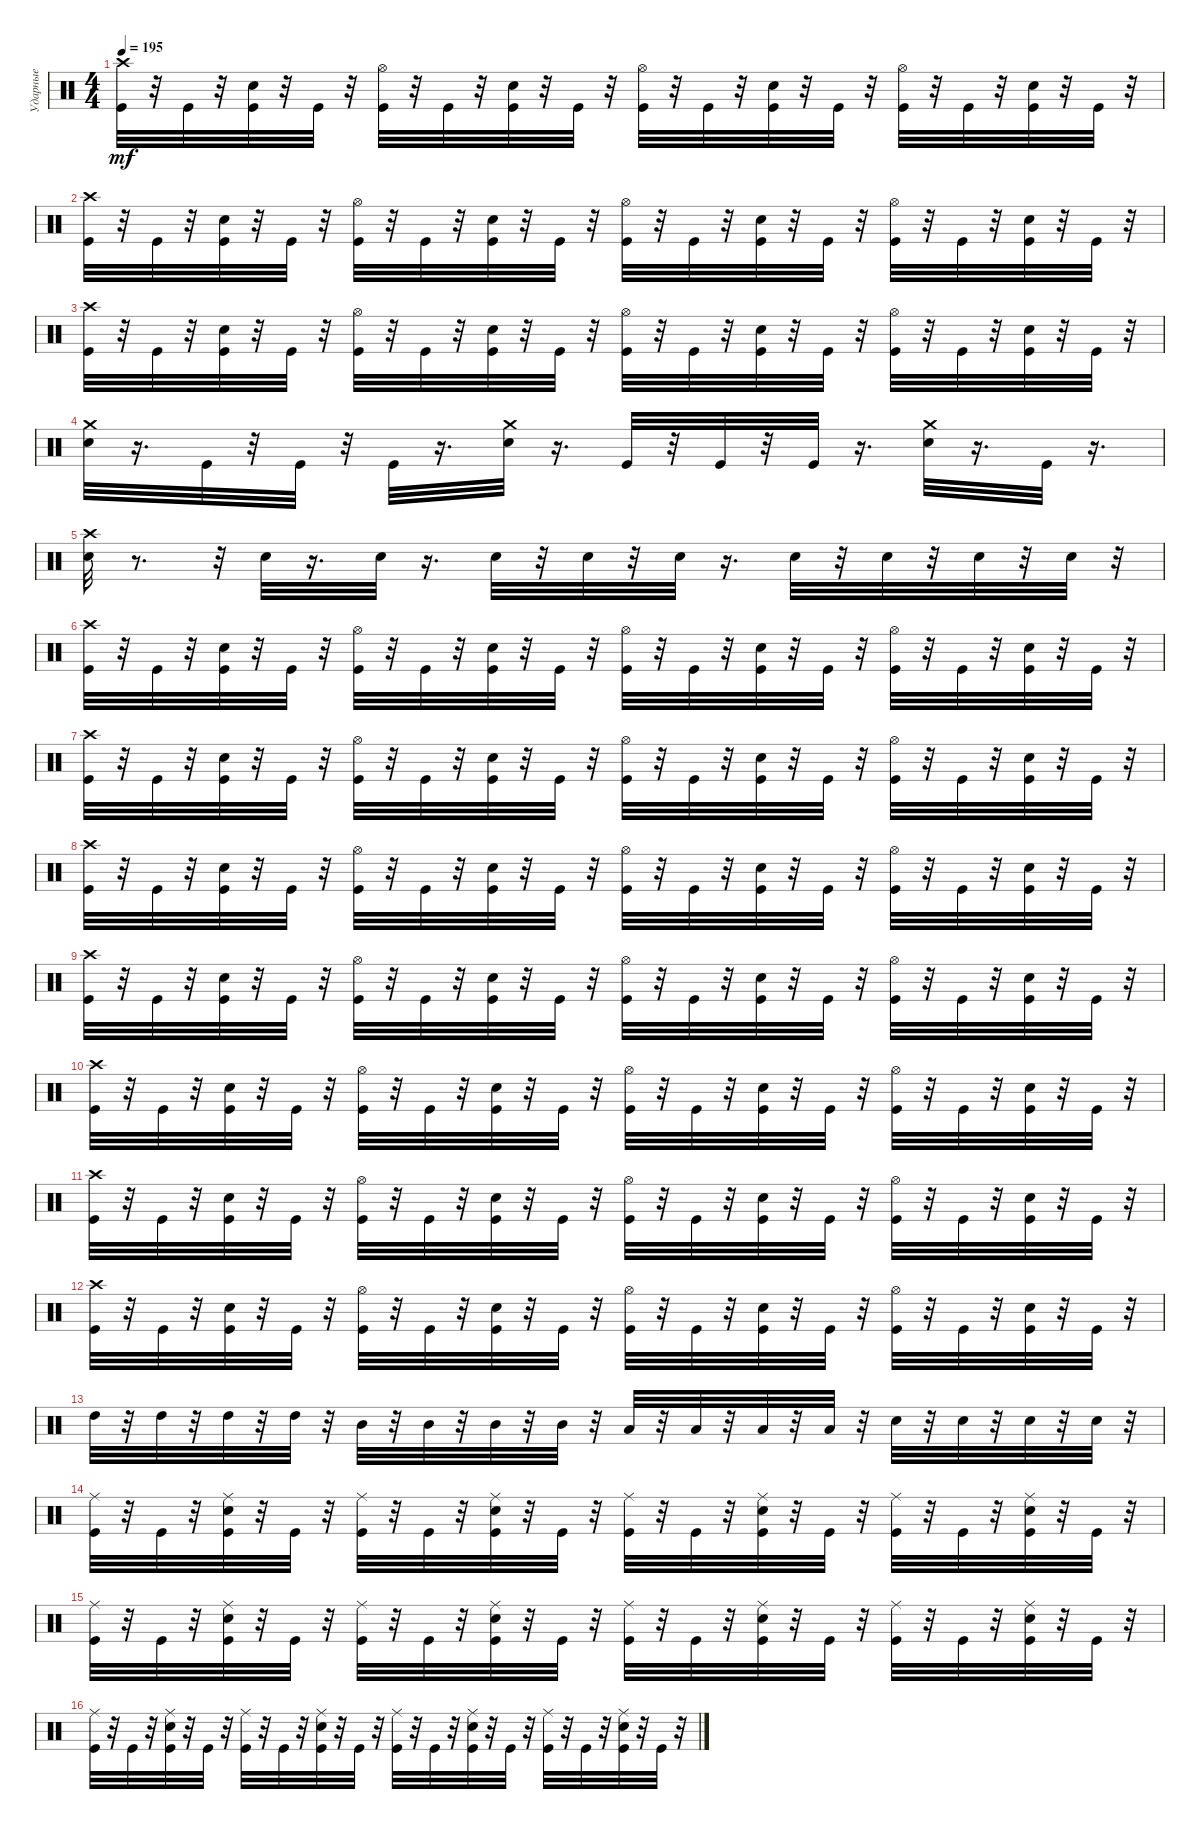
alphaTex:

\track ("Ударные" "Ударные") {instrument percussion}
\staff {score}
\articulation defaults
\ts (4 4)
\tempo 195
\clef neutral
\ks c
("Crash high (hit)" "Kick (hit)").32{dy mf} r.32 "Kick (hit)".32 r.32 ("Electric Snare (hit)" "Kick (hit)").32 r.32 "Kick (hit)".32 r.32 ("Hi-Hat (open)" "Kick (hit)").32 r.32 "Kick (hit)".32 r.32 ("Electric Snare (hit)" "Kick (hit)").32 r.32 "Kick (hit)".32 r.32 ("Hi-Hat (open)" "Kick (hit)").32 r.32 "Kick (hit)".32 r.32 ("Electric Snare (hit)" "Kick (hit)").32 r.32 "Kick (hit)".32 r.32 ("Hi-Hat (open)" "Kick (hit)").32 r.32 "Kick (hit)".32 r.32 ("Electric Snare (hit)" "Kick (hit)").32 r.32 "Kick (hit)".32 r.32 |
("Crash high (hit)" "Kick (hit)").32 r.32 "Kick (hit)".32 r.32 ("Electric Snare (hit)" "Kick (hit)").32 r.32 "Kick (hit)".32 r.32 ("Hi-Hat (open)" "Kick (hit)").32 r.32 "Kick (hit)".32 r.32 ("Electric Snare (hit)" "Kick (hit)").32 r.32 "Kick (hit)".32 r.32 ("Hi-Hat (open)" "Kick (hit)").32 r.32 "Kick (hit)".32 r.32 ("Electric Snare (hit)" "Kick (hit)").32 r.32 "Kick (hit)".32 r.32 ("Hi-Hat (open)" "Kick (hit)").32 r.32 "Kick (hit)".32 r.32 ("Electric Snare (hit)" "Kick (hit)").32 r.32 "Kick (hit)".32 r.32 |
("Crash high (hit)" "Kick (hit)").32 r.32 "Kick (hit)".32 r.32 ("Electric Snare (hit)" "Kick (hit)").32 r.32 "Kick (hit)".32 r.32 ("Hi-Hat (open)" "Kick (hit)").32 r.32 "Kick (hit)".32 r.32 ("Electric Snare (hit)" "Kick (hit)").32 r.32 "Kick (hit)".32 r.32 ("Hi-Hat (open)" "Kick (hit)").32 r.32 "Kick (hit)".32 r.32 ("Electric Snare (hit)" "Kick (hit)").32 r.32 "Kick (hit)".32 r.32 ("Hi-Hat (open)" "Kick (hit)").32 r.32 "Kick (hit)".32 r.32 ("Electric Snare (hit)" "Kick (hit)").32 r.32 "Kick (hit)".32 r.32 |
("Crash medium (hit)" "Electric Snare (hit)").32 r.16{d} "Kick (hit)".32 r.32 "Kick (hit)".32 r.32 "Kick (hit)".32 r.16{d} ("Crash medium (hit)" "Electric Snare (hit)").32 r.16{d} "Kick (hit)".32 r.32 "Kick (hit)".32 r.32 "Kick (hit)".32 r.16{d} ("Electric Snare (hit)" "Crash medium (hit)").32 r.16{d} "Kick (hit)".32 r.16{d} |
("Crash high (hit)" "Electric Snare (hit)").32 r.8{d} r.32 "Electric Snare (hit)".32 r.16{d} "Electric Snare (hit)".32 r.16{d} "Electric Snare (hit)".32 r.32 "Electric Snare (hit)".32 r.32 "Electric Snare (hit)".32 r.16{d} "Electric Snare (hit)".32 r.32 "Electric Snare (hit)".32 r.32 "Electric Snare (hit)".32 r.32 "Electric Snare (hit)".32 r.32 |
("Crash high (hit)" "Kick (hit)").32 r.32 "Kick (hit)".32 r.32 ("Electric Snare (hit)" "Kick (hit)").32 r.32 "Kick (hit)".32 r.32 ("Hi-Hat (open)" "Kick (hit)").32 r.32 "Kick (hit)".32 r.32 ("Electric Snare (hit)" "Kick (hit)").32 r.32 "Kick (hit)".32 r.32 ("Hi-Hat (open)" "Kick (hit)").32 r.32 "Kick (hit)".32 r.32 ("Electric Snare (hit)" "Kick (hit)").32 r.32 "Kick (hit)".32 r.32 ("Hi-Hat (open)" "Kick (hit)").32 r.32 "Kick (hit)".32 r.32 ("Electric Snare (hit)" "Kick (hit)").32 r.32 "Kick (hit)".32 r.32 |
("Crash high (hit)" "Kick (hit)").32 r.32 "Kick (hit)".32 r.32 ("Electric Snare (hit)" "Kick (hit)").32 r.32 "Kick (hit)".32 r.32 ("Hi-Hat (open)" "Kick (hit)").32 r.32 "Kick (hit)".32 r.32 ("Electric Snare (hit)" "Kick (hit)").32 r.32 "Kick (hit)".32 r.32 ("Hi-Hat (open)" "Kick (hit)").32 r.32 "Kick (hit)".32 r.32 ("Electric Snare (hit)" "Kick (hit)").32 r.32 "Kick (hit)".32 r.32 ("Hi-Hat (open)" "Kick (hit)").32 r.32 "Kick (hit)".32 r.32 ("Electric Snare (hit)" "Kick (hit)").32 r.32 "Kick (hit)".32 r.32 |
("Crash high (hit)" "Kick (hit)").32 r.32 "Kick (hit)".32 r.32 ("Electric Snare (hit)" "Kick (hit)").32 r.32 "Kick (hit)".32 r.32 ("Hi-Hat (open)" "Kick (hit)").32 r.32 "Kick (hit)".32 r.32 ("Electric Snare (hit)" "Kick (hit)").32 r.32 "Kick (hit)".32 r.32 ("Hi-Hat (open)" "Kick (hit)").32 r.32 "Kick (hit)".32 r.32 ("Electric Snare (hit)" "Kick (hit)").32 r.32 "Kick (hit)".32 r.32 ("Hi-Hat (open)" "Kick (hit)").32 r.32 "Kick (hit)".32 r.32 ("Electric Snare (hit)" "Kick (hit)").32 r.32 "Kick (hit)".32 r.32 |
("Crash high (hit)" "Kick (hit)").32 r.32 "Kick (hit)".32 r.32 ("Electric Snare (hit)" "Kick (hit)").32 r.32 "Kick (hit)".32 r.32 ("Hi-Hat (open)" "Kick (hit)").32 r.32 "Kick (hit)".32 r.32 ("Electric Snare (hit)" "Kick (hit)").32 r.32 "Kick (hit)".32 r.32 ("Hi-Hat (open)" "Kick (hit)").32 r.32 "Kick (hit)".32 r.32 ("Electric Snare (hit)" "Kick (hit)").32 r.32 "Kick (hit)".32 r.32 ("Hi-Hat (open)" "Kick (hit)").32 r.32 "Kick (hit)".32 r.32 ("Electric Snare (hit)" "Kick (hit)").32 r.32 "Kick (hit)".32 r.32 |
("Crash high (hit)" "Kick (hit)").32 r.32 "Kick (hit)".32 r.32 ("Electric Snare (hit)" "Kick (hit)").32 r.32 "Kick (hit)".32 r.32 ("Hi-Hat (open)" "Kick (hit)").32 r.32 "Kick (hit)".32 r.32 ("Electric Snare (hit)" "Kick (hit)").32 r.32 "Kick (hit)".32 r.32 ("Hi-Hat (open)" "Kick (hit)").32 r.32 "Kick (hit)".32 r.32 ("Electric Snare (hit)" "Kick (hit)").32 r.32 "Kick (hit)".32 r.32 ("Hi-Hat (open)" "Kick (hit)").32 r.32 "Kick (hit)".32 r.32 ("Electric Snare (hit)" "Kick (hit)").32 r.32 "Kick (hit)".32 r.32 |
("Crash high (hit)" "Kick (hit)").32 r.32 "Kick (hit)".32 r.32 ("Electric Snare (hit)" "Kick (hit)").32 r.32 "Kick (hit)".32 r.32 ("Hi-Hat (open)" "Kick (hit)").32 r.32 "Kick (hit)".32 r.32 ("Electric Snare (hit)" "Kick (hit)").32 r.32 "Kick (hit)".32 r.32 ("Hi-Hat (open)" "Kick (hit)").32 r.32 "Kick (hit)".32 r.32 ("Electric Snare (hit)" "Kick (hit)").32 r.32 "Kick (hit)".32 r.32 ("Hi-Hat (open)" "Kick (hit)").32 r.32 "Kick (hit)".32 r.32 ("Electric Snare (hit)" "Kick (hit)").32 r.32 "Kick (hit)".32 r.32 |
("Crash high (hit)" "Kick (hit)").32 r.32 "Kick (hit)".32 r.32 ("Electric Snare (hit)" "Kick (hit)").32 r.32 "Kick (hit)".32 r.32 ("Hi-Hat (open)" "Kick (hit)").32 r.32 "Kick (hit)".32 r.32 ("Electric Snare (hit)" "Kick (hit)").32 r.32 "Kick (hit)".32 r.32 ("Hi-Hat (open)" "Kick (hit)").32 r.32 "Kick (hit)".32 r.32 ("Electric Snare (hit)" "Kick (hit)").32 r.32 "Kick (hit)".32 r.32 ("Hi-Hat (open)" "Kick (hit)").32 r.32 "Kick (hit)".32 r.32 ("Electric Snare (hit)" "Kick (hit)").32 r.32 "Kick (hit)".32 r.32 |
"High Tom (hit)".32 r.32 "High Tom (hit)".32 r.32 "High Tom (hit)".32 r.32 "High Tom (hit)".32 r.32 "Mid Tom (hit)".32 r.32 "Mid Tom (hit)".32 r.32 "Mid Tom (hit)".32 r.32 "Mid Tom (hit)".32 r.32 "Low Tom (hit)".32 r.32 "Low Tom (hit)".32 r.32 "Low Tom (hit)".32 r.32 "Low Tom (hit)".32 r.32 "Electric Snare (hit)".32 r.32 "Electric Snare (hit)".32 r.32 "Electric Snare (hit)".32 r.32 "Electric Snare (hit)".32 r.32 |
("Ride (middle)" "Kick (hit)").32 r.32 "Kick (hit)".32 r.32 ("Electric Snare (hit)" "Kick (hit)" "Ride (middle)").32 r.32 "Kick (hit)".32 r.32 ("Ride (middle)" "Kick (hit)").32 r.32 "Kick (hit)".32 r.32 ("Ride (middle)" "Electric Snare (hit)" "Kick (hit)").32 r.32 "Kick (hit)".32 r.32 ("Ride (middle)" "Kick (hit)").32 r.32 "Kick (hit)".32 r.32 ("Electric Snare (hit)" "Kick (hit)" "Ride (middle)").32 r.32 "Kick (hit)".32 r.32 ("Ride (middle)" "Kick (hit)").32 r.32 "Kick (hit)".32 r.32 ("Ride (middle)" "Electric Snare (hit)" "Kick (hit)").32 r.32 "Kick (hit)".32 r.32 |
("Ride (middle)" "Kick (hit)").32 r.32 "Kick (hit)".32 r.32 ("Electric Snare (hit)" "Kick (hit)" "Ride (middle)").32 r.32 "Kick (hit)".32 r.32 ("Ride (middle)" "Kick (hit)").32 r.32 "Kick (hit)".32 r.32 ("Ride (middle)" "Electric Snare (hit)" "Kick (hit)").32 r.32 "Kick (hit)".32 r.32 ("Ride (middle)" "Kick (hit)").32 r.32 "Kick (hit)".32 r.32 ("Electric Snare (hit)" "Kick (hit)" "Ride (middle)").32 r.32 "Kick (hit)".32 r.32 ("Ride (middle)" "Kick (hit)").32 r.32 "Kick (hit)".32 r.32 ("Ride (middle)" "Electric Snare (hit)" "Kick (hit)").32 r.32 "Kick (hit)".32 r.32 |
("Ride (middle)" "Kick (hit)").32 r.32 "Kick (hit)".32 r.32 ("Electric Snare (hit)" "Kick (hit)" "Ride (middle)").32 r.32 "Kick (hit)".32 r.32 ("Ride (middle)" "Kick (hit)").32 r.32 "Kick (hit)".32 r.32 ("Ride (middle)" "Electric Snare (hit)" "Kick (hit)").32 r.32 "Kick (hit)".32 r.32 ("Ride (middle)" "Kick (hit)").32 r.32 "Kick (hit)".32 r.32 ("Electric Snare (hit)" "Kick (hit)" "Ride (middle)").32 r.32 "Kick (hit)".32 r.32 ("Ride (middle)" "Kick (hit)").32 r.32 "Kick (hit)".32 r.32 ("Ride (middle)" "Electric Snare (hit)" "Kick (hit)").32 r.32 "Kick (hit)".32 r.32
